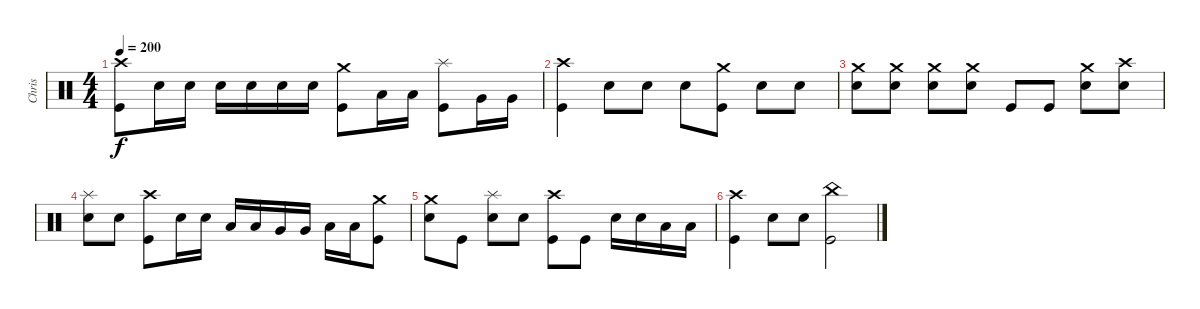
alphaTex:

\track ("Chris" "Chris") {instrument percussion}
\staff {score}
\articulation defaults
\ts (4 4)
\tempo 200
\clef neutral
\ks c
("Crash high (hit)" "Kick (hit)").8{dy f} "Electric Snare (hit)".16 "Electric Snare (hit)".16 "Electric Snare (hit)".16 "Electric Snare (hit)".16 "Electric Snare (hit)".16 "Electric Snare (hit)".16 ("Crash medium (hit)" "Kick (hit)").8 "Low Tom (hit)".16 "Low Tom (hit)".16 ("Splash (hit)" "Kick (hit)").8 "Very Low Tom (hit)".16 "Very Low Tom (hit)".16 |
("Crash high (hit)" "Kick (hit)").4 "Electric Snare (hit)".8 "Electric Snare (hit)".8 "Electric Snare (hit)".8 ("Crash medium (hit)" "Kick (hit)").8 "Electric Snare (hit)".8 "Electric Snare (hit)".8 |
("Crash medium (hit)" "Electric Snare (hit)").8 ("Crash medium (hit)" "Electric Snare (hit)").8 ("Crash medium (hit)" "Electric Snare (hit)").8 ("Crash medium (hit)" "Electric Snare (hit)").8 "Kick (hit)".8 "Kick (hit)".8 ("Crash medium (hit)" "Electric Snare (hit)").8 ("Crash high (hit)" "Electric Snare (hit)").8 |
("Splash (hit)" "Electric Snare (hit)").8 "Electric Snare (hit)".8 ("Crash high (hit)" "Kick (hit)").8 "Electric Snare (hit)".16 "Electric Snare (hit)".16 "Low Tom (hit)".16 "Low Tom (hit)".16 "Very Low Tom (hit)".16 "Very Low Tom (hit)".16 "Low Floor Tom (hit)".16 "Low Floor Tom (hit)".16 ("Crash medium (hit)" "Kick (hit)").8 |
("Crash medium (hit)" "Electric Snare (hit)").8 "Kick (hit)".8 ("Splash (hit)" "Electric Snare (hit)").8 "Electric Snare (hit)".8 ("Crash high (hit)" "Kick (hit)").8 "Kick (hit)".8 "Electric Snare (hit)".16 "Electric Snare (hit)".16 "Low Tom (hit)".16 "Low Tom (hit)".16 |
("Crash high (hit)" "Kick (hit)").4 "Electric Snare (hit)".8 "Electric Snare (hit)".8 ("China (hit)" "Kick (hit)").2
